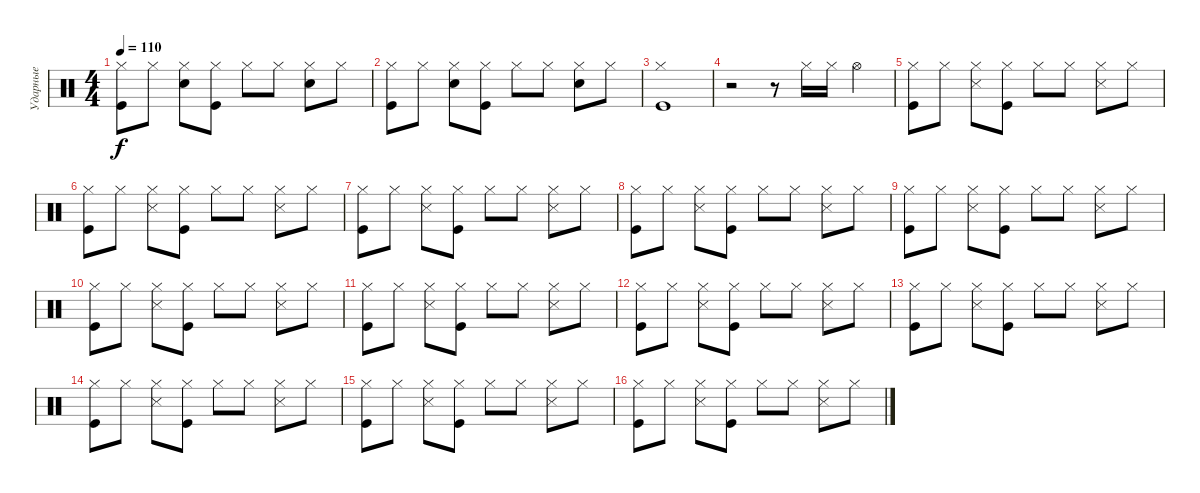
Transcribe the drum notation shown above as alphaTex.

\track ("Ударные" "Ударные") {instrument percussion}
\staff {score}
\articulation defaults
\ts (4 4)
\tempo 110
\clef neutral
\ks c
("Hi-Hat (closed)" "Kick (hit)").8{dy f} "Hi-Hat (closed)".8 ("Hi-Hat (closed)" "Snare (hit) 2").8 ("Hi-Hat (closed)" "Kick (hit)").8 "Hi-Hat (closed)".8 "Hi-Hat (closed)".8 ("Hi-Hat (closed)" "Snare (hit) 2").8 "Hi-Hat (closed)".8 |
("Hi-Hat (closed)" "Kick (hit)").8 "Hi-Hat (closed)".8 ("Hi-Hat (closed)" "Snare (hit) 2").8 ("Hi-Hat (closed)" "Kick (hit)").8 "Hi-Hat (closed)".8 "Hi-Hat (closed)".8 ("Hi-Hat (closed)" "Snare (hit) 2").8 "Hi-Hat (closed)".8 |
("Hi-Hat (closed)" "Kick (hit)").1 |
r.2 r.8 "Hi-Hat (closed)".16 "Hi-Hat (closed)".16 "Hi-Hat (open)".4 |
("Hi-Hat (closed)" "Kick (hit)").8 "Hi-Hat (closed)".8 ("Hi-Hat (closed)" "Snare (side stick) 3").8 ("Hi-Hat (closed)" "Kick (hit)").8 "Hi-Hat (closed)".8 "Hi-Hat (closed)".8 ("Hi-Hat (closed)" "Snare (side stick) 3").8 "Hi-Hat (closed)".8 |
("Hi-Hat (closed)" "Kick (hit)").8 "Hi-Hat (closed)".8 ("Hi-Hat (closed)" "Snare (side stick) 3").8 ("Hi-Hat (closed)" "Kick (hit)").8 "Hi-Hat (closed)".8 "Hi-Hat (closed)".8 ("Hi-Hat (closed)" "Snare (side stick) 3").8 "Hi-Hat (closed)".8 |
("Hi-Hat (closed)" "Kick (hit)").8 "Hi-Hat (closed)".8 ("Hi-Hat (closed)" "Snare (side stick) 3").8 ("Hi-Hat (closed)" "Kick (hit)").8 "Hi-Hat (closed)".8 "Hi-Hat (closed)".8 ("Hi-Hat (closed)" "Snare (side stick) 3").8 "Hi-Hat (closed)".8 |
("Hi-Hat (closed)" "Kick (hit)").8 "Hi-Hat (closed)".8 ("Hi-Hat (closed)" "Snare (side stick) 3").8 ("Hi-Hat (closed)" "Kick (hit)").8 "Hi-Hat (closed)".8 "Hi-Hat (closed)".8 ("Hi-Hat (closed)" "Snare (side stick) 3").8 "Hi-Hat (closed)".8 |
("Hi-Hat (closed)" "Kick (hit)").8 "Hi-Hat (closed)".8 ("Hi-Hat (closed)" "Snare (side stick) 3").8 ("Hi-Hat (closed)" "Kick (hit)").8 "Hi-Hat (closed)".8 "Hi-Hat (closed)".8 ("Hi-Hat (closed)" "Snare (side stick) 3").8 "Hi-Hat (closed)".8 |
("Hi-Hat (closed)" "Kick (hit)").8 "Hi-Hat (closed)".8 ("Hi-Hat (closed)" "Snare (side stick) 3").8 ("Hi-Hat (closed)" "Kick (hit)").8 "Hi-Hat (closed)".8 "Hi-Hat (closed)".8 ("Hi-Hat (closed)" "Snare (side stick) 3").8 "Hi-Hat (closed)".8 |
("Hi-Hat (closed)" "Kick (hit)").8 "Hi-Hat (closed)".8 ("Hi-Hat (closed)" "Snare (side stick) 3").8 ("Hi-Hat (closed)" "Kick (hit)").8 "Hi-Hat (closed)".8 "Hi-Hat (closed)".8 ("Hi-Hat (closed)" "Snare (side stick) 3").8 "Hi-Hat (closed)".8 |
("Hi-Hat (closed)" "Kick (hit)").8 "Hi-Hat (closed)".8 ("Hi-Hat (closed)" "Snare (side stick) 3").8 ("Hi-Hat (closed)" "Kick (hit)").8 "Hi-Hat (closed)".8 "Hi-Hat (closed)".8 ("Hi-Hat (closed)" "Snare (side stick) 3").8 "Hi-Hat (closed)".8 |
("Hi-Hat (closed)" "Kick (hit)").8 "Hi-Hat (closed)".8 ("Hi-Hat (closed)" "Snare (side stick) 3").8 ("Hi-Hat (closed)" "Kick (hit)").8 "Hi-Hat (closed)".8 "Hi-Hat (closed)".8 ("Hi-Hat (closed)" "Snare (side stick) 3").8 "Hi-Hat (closed)".8 |
("Hi-Hat (closed)" "Kick (hit)").8 "Hi-Hat (closed)".8 ("Hi-Hat (closed)" "Snare (side stick) 3").8 ("Hi-Hat (closed)" "Kick (hit)").8 "Hi-Hat (closed)".8 "Hi-Hat (closed)".8 ("Hi-Hat (closed)" "Snare (side stick) 3").8 "Hi-Hat (closed)".8 |
("Hi-Hat (closed)" "Kick (hit)").8 "Hi-Hat (closed)".8 ("Hi-Hat (closed)" "Snare (side stick) 3").8 ("Hi-Hat (closed)" "Kick (hit)").8 "Hi-Hat (closed)".8 "Hi-Hat (closed)".8 ("Hi-Hat (closed)" "Snare (side stick) 3").8 "Hi-Hat (closed)".8 |
("Hi-Hat (closed)" "Kick (hit)").8 "Hi-Hat (closed)".8 ("Hi-Hat (closed)" "Snare (side stick) 3").8 ("Hi-Hat (closed)" "Kick (hit)").8 "Hi-Hat (closed)".8 "Hi-Hat (closed)".8 ("Hi-Hat (closed)" "Snare (side stick) 3").8 "Hi-Hat (closed)".8
